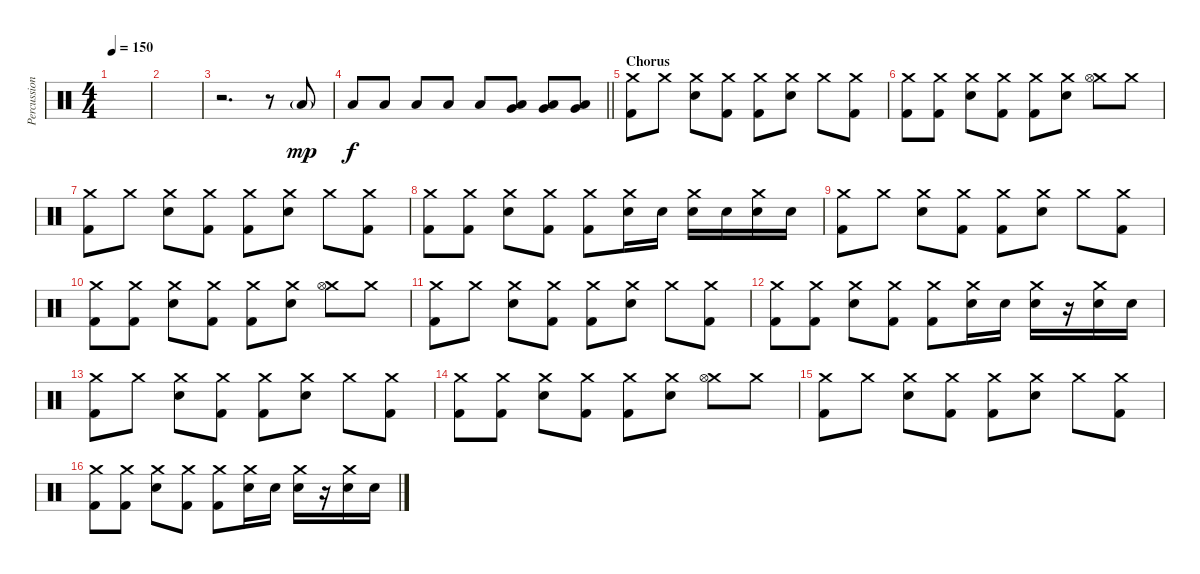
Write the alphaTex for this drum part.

\track ("Percussion" "Percussion") {instrument percussion}
\staff {score}
\articulation defaults
\ts (4 4)
\tempo 150
\clef neutral
\ks c
|
|
r.2{d} r.8 "Low Floor Tom (hit)"{g}.8{dy mp} |
\barLineRight lightlight "Low Floor Tom (hit)".8{dy f} "Low Floor Tom (hit)".8 "Low Floor Tom (hit)".8 "Low Floor Tom (hit)".8 "Low Floor Tom (hit)".8
("Very Low Tom (hit)" "Low Floor Tom (hit)").8 ("Very Low Tom (hit)" "Low Floor Tom (hit)").8 ("Very Low Tom (hit)" "Low Floor Tom (hit)").8 |
\section ("" "Chorus")
("Crash medium (hit)" "Kick (hit) 2").8 "Crash medium (hit)".8 ("Crash medium (hit)" "Electric Snare (hit)").8 ("Crash medium (hit)" "Kick (hit) 2").8 ("Crash medium (hit)" "Kick (hit) 2").8 ("Crash medium (hit)" "Electric Snare (hit)").8 "Crash medium (hit)".8 ("Crash medium (hit)" "Kick (hit) 2").8 |
("Crash medium (hit)" "Kick (hit) 2").8 ("Crash medium (hit)" "Kick (hit) 2").8 ("Crash medium (hit)" "Electric Snare (hit)").8 ("Crash medium (hit)" "Kick (hit) 2").8 ("Crash medium (hit)" "Kick (hit) 2").8 ("Crash medium (hit)" "Electric Snare (hit)").8 ("Crash medium (hit)" "Hi-Hat (open)").8 "Crash medium (hit)".8 |
("Crash medium (hit)" "Kick (hit) 2").8 "Crash medium (hit)".8 ("Crash medium (hit)" "Electric Snare (hit)").8 ("Crash medium (hit)" "Kick (hit) 2").8 ("Crash medium (hit)" "Kick (hit) 2").8 ("Crash medium (hit)" "Electric Snare (hit)").8 "Crash medium (hit)".8 ("Crash medium (hit)" "Kick (hit) 2").8 |
("Crash medium (hit)" "Kick (hit) 2").8 ("Crash medium (hit)" "Kick (hit) 2").8 ("Crash medium (hit)" "Electric Snare (hit)").8 ("Crash medium (hit)" "Kick (hit) 2").8 ("Crash medium (hit)" "Kick (hit) 2").8 ("Crash medium (hit)" "Electric Snare (hit)").16 "Electric Snare (hit)".16 ("Crash medium (hit)" "Electric Snare (hit)").16 "Electric Snare (hit)".16 ("Crash medium (hit)" "Electric Snare (hit)").16 "Electric Snare (hit)".16 |
("Crash medium (hit)" "Kick (hit) 2").8 "Crash medium (hit)".8 ("Crash medium (hit)" "Electric Snare (hit)").8 ("Crash medium (hit)" "Kick (hit) 2").8 ("Crash medium (hit)" "Kick (hit) 2").8 ("Crash medium (hit)" "Electric Snare (hit)").8 "Crash medium (hit)".8 ("Crash medium (hit)" "Kick (hit) 2").8 |
("Crash medium (hit)" "Kick (hit) 2").8 ("Crash medium (hit)" "Kick (hit) 2").8 ("Crash medium (hit)" "Electric Snare (hit)").8 ("Crash medium (hit)" "Kick (hit) 2").8 ("Crash medium (hit)" "Kick (hit) 2").8 ("Crash medium (hit)" "Electric Snare (hit)").8 ("Crash medium (hit)" "Hi-Hat (open)").8 "Crash medium (hit)".8 |
("Crash medium (hit)" "Kick (hit) 2").8 "Crash medium (hit)".8 ("Crash medium (hit)" "Electric Snare (hit)").8 ("Crash medium (hit)" "Kick (hit) 2").8 ("Crash medium (hit)" "Kick (hit) 2").8 ("Crash medium (hit)" "Electric Snare (hit)").8 "Crash medium (hit)".8 ("Crash medium (hit)" "Kick (hit) 2").8 |
("Crash medium (hit)" "Kick (hit) 2").8 ("Crash medium (hit)" "Kick (hit) 2").8 ("Crash medium (hit)" "Electric Snare (hit)").8 ("Crash medium (hit)" "Kick (hit) 2").8 ("Crash medium (hit)" "Kick (hit) 2").8 ("Crash medium (hit)" "Electric Snare (hit)").16 "Electric Snare (hit)".16 ("Crash medium (hit)" "Electric Snare (hit)").16 r.16 ("Crash medium (hit)" "Electric Snare (hit)").16 "Electric Snare (hit)".16 |
("Crash medium (hit)" "Kick (hit) 2").8 "Crash medium (hit)".8 ("Crash medium (hit)" "Electric Snare (hit)").8 ("Crash medium (hit)" "Kick (hit) 2").8 ("Crash medium (hit)" "Kick (hit) 2").8 ("Crash medium (hit)" "Electric Snare (hit)").8 "Crash medium (hit)".8 ("Crash medium (hit)" "Kick (hit) 2").8 |
("Crash medium (hit)" "Kick (hit) 2").8 ("Crash medium (hit)" "Kick (hit) 2").8 ("Crash medium (hit)" "Electric Snare (hit)").8 ("Crash medium (hit)" "Kick (hit) 2").8 ("Crash medium (hit)" "Kick (hit) 2").8 ("Crash medium (hit)" "Electric Snare (hit)").8 ("Crash medium (hit)" "Hi-Hat (open)").8 "Crash medium (hit)".8 |
("Crash medium (hit)" "Kick (hit) 2").8 "Crash medium (hit)".8 ("Crash medium (hit)" "Electric Snare (hit)").8 ("Crash medium (hit)" "Kick (hit) 2").8 ("Crash medium (hit)" "Kick (hit) 2").8 ("Crash medium (hit)" "Electric Snare (hit)").8 "Crash medium (hit)".8 ("Crash medium (hit)" "Kick (hit) 2").8 |
("Crash medium (hit)" "Kick (hit) 2").8 ("Crash medium (hit)" "Kick (hit) 2").8 ("Crash medium (hit)" "Electric Snare (hit)").8 ("Crash medium (hit)" "Kick (hit) 2").8 ("Crash medium (hit)" "Kick (hit) 2").8 ("Crash medium (hit)" "Electric Snare (hit)").16 "Electric Snare (hit)".16 ("Crash medium (hit)" "Electric Snare (hit)").16 r.16 ("Crash medium (hit)" "Electric Snare (hit)").16 "Electric Snare (hit)".16
